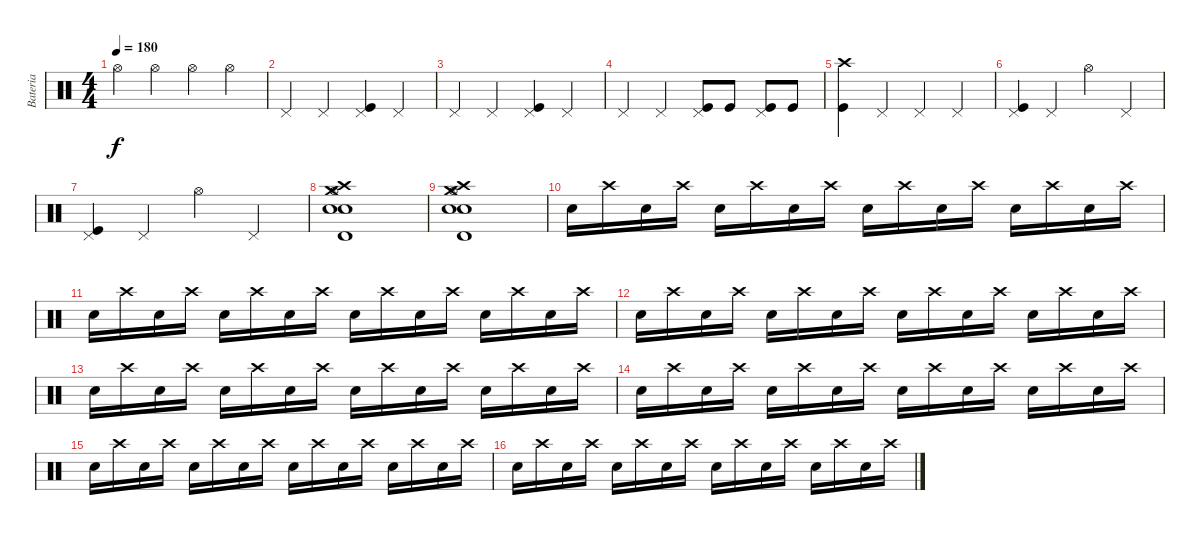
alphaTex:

\track ("Bateria" "Bateria") {instrument percussion}
\staff {score}
\articulation defaults
\ts (4 4)
\tempo 180
\clef neutral
\ks c "Hi-Hat (open)".4{dy f} "Hi-Hat (open)".4 "Hi-Hat (open)".4 "Hi-Hat (open)".4
|
"Pedal Hi-Hat (hit)".4 "Pedal Hi-Hat (hit)".4 ("Pedal Hi-Hat (hit)" "Kick (hit)").4 "Pedal Hi-Hat (hit)".4 |
"Pedal Hi-Hat (hit)".4 "Pedal Hi-Hat (hit)".4 ("Pedal Hi-Hat (hit)" "Kick (hit)").4 "Pedal Hi-Hat (hit)".4 |
"Pedal Hi-Hat (hit)".4 "Pedal Hi-Hat (hit)".4 ("Pedal Hi-Hat (hit)" "Kick (hit)").8 "Kick (hit)".8 ("Pedal Hi-Hat (hit)" "Kick (hit)").8 "Kick (hit)".8 |
("Crash high (hit)" "Kick (hit)").4 "Pedal Hi-Hat (hit)".4 "Pedal Hi-Hat (hit)".4 "Pedal Hi-Hat (hit)".4 |
("Pedal Hi-Hat (hit)" "Kick (hit)").4 "Pedal Hi-Hat (hit)".4 "Hi-Hat (open)".4 "Pedal Hi-Hat (hit)".4 |
("Pedal Hi-Hat (hit)" "Kick (hit)").4 "Pedal Hi-Hat (hit)".4 "Hi-Hat (open)".4 "Pedal Hi-Hat (hit)".4 |
("Crash high (hit)" "Crash medium (hit)" "Hi-Hat (open)" "Snare (hit) 2" "Electric Snare (hit)" "Timbale high (hit)").1 |
("Crash high (hit)" "Crash medium (hit)" "Hi-Hat (open)" "Snare (hit) 2" "Electric Snare (hit)" "Timbale high (hit)").1 |
"Electric Snare (hit)".16 "Crash high (hit)".16 "Electric Snare (hit)".16 "Crash high (hit)".16 "Electric Snare (hit)".16 "Crash high (hit)".16 "Electric Snare (hit)".16 "Crash high (hit)".16 "Electric Snare (hit)".16 "Crash high (hit)".16 "Electric Snare (hit)".16 "Crash high (hit)".16 "Electric Snare (hit)".16 "Crash high (hit)".16 "Electric Snare (hit)".16 "Crash high (hit)".16 |
"Electric Snare (hit)".16 "Crash high (hit)".16 "Electric Snare (hit)".16 "Crash high (hit)".16 "Electric Snare (hit)".16 "Crash high (hit)".16 "Electric Snare (hit)".16 "Crash high (hit)".16 "Electric Snare (hit)".16 "Crash high (hit)".16 "Electric Snare (hit)".16 "Crash high (hit)".16 "Electric Snare (hit)".16 "Crash high (hit)".16 "Electric Snare (hit)".16 "Crash high (hit)".16 |
"Electric Snare (hit)".16 "Crash high (hit)".16 "Electric Snare (hit)".16 "Crash high (hit)".16 "Electric Snare (hit)".16 "Crash high (hit)".16 "Electric Snare (hit)".16 "Crash high (hit)".16 "Electric Snare (hit)".16 "Crash high (hit)".16 "Electric Snare (hit)".16 "Crash high (hit)".16 "Electric Snare (hit)".16 "Crash high (hit)".16 "Electric Snare (hit)".16 "Crash high (hit)".16 |
"Electric Snare (hit)".16 "Crash high (hit)".16 "Electric Snare (hit)".16 "Crash high (hit)".16 "Electric Snare (hit)".16 "Crash high (hit)".16 "Electric Snare (hit)".16 "Crash high (hit)".16 "Electric Snare (hit)".16 "Crash high (hit)".16 "Electric Snare (hit)".16 "Crash high (hit)".16 "Electric Snare (hit)".16 "Crash high (hit)".16 "Electric Snare (hit)".16 "Crash high (hit)".16 |
"Electric Snare (hit)".16 "Crash high (hit)".16 "Electric Snare (hit)".16 "Crash high (hit)".16 "Electric Snare (hit)".16 "Crash high (hit)".16 "Electric Snare (hit)".16 "Crash high (hit)".16 "Electric Snare (hit)".16 "Crash high (hit)".16 "Electric Snare (hit)".16 "Crash high (hit)".16 "Electric Snare (hit)".16 "Crash high (hit)".16 "Electric Snare (hit)".16 "Crash high (hit)".16 |
"Electric Snare (hit)".16 "Crash high (hit)".16 "Electric Snare (hit)".16 "Crash high (hit)".16 "Electric Snare (hit)".16 "Crash high (hit)".16 "Electric Snare (hit)".16 "Crash high (hit)".16 "Electric Snare (hit)".16 "Crash high (hit)".16 "Electric Snare (hit)".16 "Crash high (hit)".16 "Electric Snare (hit)".16 "Crash high (hit)".16 "Electric Snare (hit)".16 "Crash high (hit)".16 |
"Electric Snare (hit)".16 "Crash high (hit)".16 "Electric Snare (hit)".16 "Crash high (hit)".16 "Electric Snare (hit)".16 "Crash high (hit)".16 "Electric Snare (hit)".16 "Crash high (hit)".16 "Electric Snare (hit)".16 "Crash high (hit)".16 "Electric Snare (hit)".16 "Crash high (hit)".16 "Electric Snare (hit)".16 "Crash high (hit)".16 "Electric Snare (hit)".16 "Crash high (hit)".16
